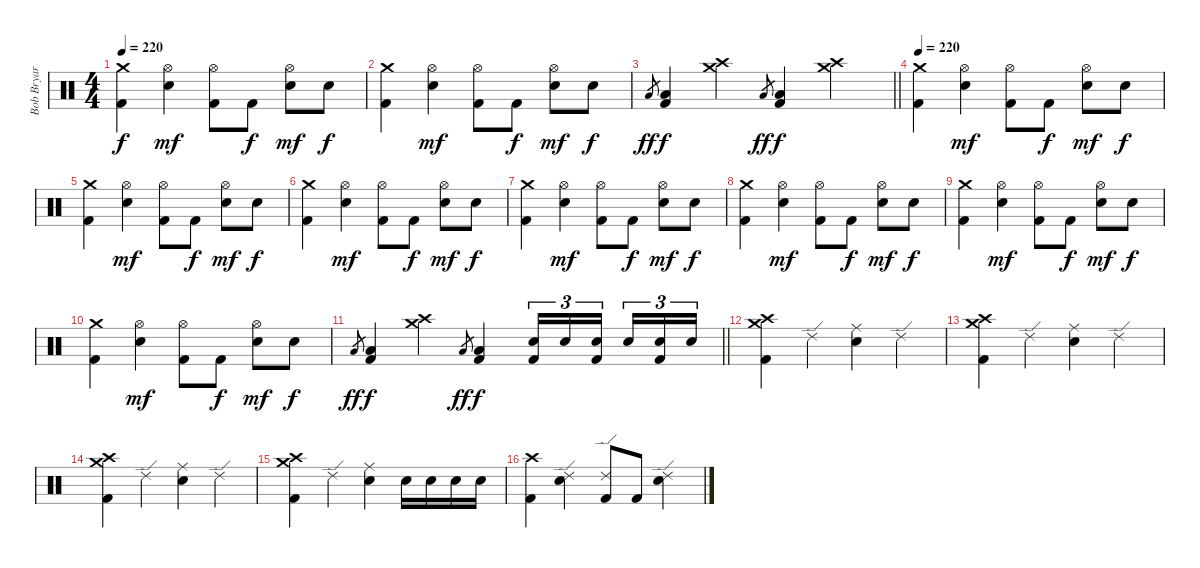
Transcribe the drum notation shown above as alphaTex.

\track ("Bob Bryar" "Bob Bryar") {instrument percussion}
\staff {score}
\articulation defaults
\ts (4 4)
\tempo 220
\clef neutral
\ks c
("Crash medium (hit)" "Kick (hit) 2").4{dy f} ("Hi-Hat (open)" "Electric Snare (hit)").4{dy mf} ("Hi-Hat (open)" "Kick (hit) 2").8 "Kick (hit) 2".8{dy f} ("Hi-Hat (open)" "Electric Snare (hit)").8{dy mf} "Electric Snare (hit)".8{dy f} |
("Crash medium (hit)" "Kick (hit) 2").4 ("Hi-Hat (open)" "Electric Snare (hit)").4{dy mf} ("Hi-Hat (open)" "Kick (hit) 2").8 "Kick (hit) 2".8{dy f} ("Hi-Hat (open)" "Electric Snare (hit)").8{dy mf} "Electric Snare (hit)".8{dy f} |
\barLineRight lightlight "Low Floor Tom (hit)".8{gr dy ff}
("Low Floor Tom (hit)" "Kick (hit) 2").4{dy f} ("Crash medium (hit)" "Crash high (hit)").4 "Low Floor Tom (hit)".8{gr dy ff} ("Low Floor Tom (hit)" "Kick (hit) 2").4{dy f} ("Crash medium (hit)" "Crash high (hit)").4 |
\tempo 220
("Crash medium (hit)" "Kick (hit) 2").4 ("Hi-Hat (open)" "Electric Snare (hit)").4{dy mf} ("Hi-Hat (open)" "Kick (hit) 2").8 "Kick (hit) 2".8{dy f} ("Hi-Hat (open)" "Electric Snare (hit)").8{dy mf} "Electric Snare (hit)".8{dy f} |
("Crash medium (hit)" "Kick (hit) 2").4 ("Hi-Hat (open)" "Electric Snare (hit)").4{dy mf} ("Hi-Hat (open)" "Kick (hit) 2").8 "Kick (hit) 2".8{dy f} ("Hi-Hat (open)" "Electric Snare (hit)").8{dy mf} "Electric Snare (hit)".8{dy f} |
("Crash medium (hit)" "Kick (hit) 2").4 ("Hi-Hat (open)" "Electric Snare (hit)").4{dy mf} ("Hi-Hat (open)" "Kick (hit) 2").8 "Kick (hit) 2".8{dy f} ("Hi-Hat (open)" "Electric Snare (hit)").8{dy mf} "Electric Snare (hit)".8{dy f} |
("Crash medium (hit)" "Kick (hit) 2").4 ("Hi-Hat (open)" "Electric Snare (hit)").4{dy mf} ("Hi-Hat (open)" "Kick (hit) 2").8 "Kick (hit) 2".8{dy f} ("Hi-Hat (open)" "Electric Snare (hit)").8{dy mf} "Electric Snare (hit)".8{dy f} |
("Crash medium (hit)" "Kick (hit) 2").4 ("Hi-Hat (open)" "Electric Snare (hit)").4{dy mf} ("Hi-Hat (open)" "Kick (hit) 2").8 "Kick (hit) 2".8{dy f} ("Hi-Hat (open)" "Electric Snare (hit)").8{dy mf} "Electric Snare (hit)".8{dy f} |
("Crash medium (hit)" "Kick (hit) 2").4 ("Hi-Hat (open)" "Electric Snare (hit)").4{dy mf} ("Hi-Hat (open)" "Kick (hit) 2").8 "Kick (hit) 2".8{dy f} ("Hi-Hat (open)" "Electric Snare (hit)").8{dy mf} "Electric Snare (hit)".8{dy f} |
("Crash medium (hit)" "Kick (hit) 2").4 ("Hi-Hat (open)" "Electric Snare (hit)").4{dy mf} ("Hi-Hat (open)" "Kick (hit) 2").8 "Kick (hit) 2".8{dy f} ("Hi-Hat (open)" "Electric Snare (hit)").8{dy mf} "Electric Snare (hit)".8{dy f} |
\barLineRight lightlight "Low Floor Tom (hit)".8{gr dy ff}
("Low Floor Tom (hit)" "Kick (hit) 2").4{dy f} ("Crash medium (hit)" "Crash high (hit)").4 "Low Floor Tom (hit)".8{gr dy ff} ("Low Floor Tom (hit)" "Kick (hit) 2").4{dy f} ("Snare (hit) 2" "Kick (hit) 2").16{tu (3 2)} "Snare (hit) 2".16{tu (3 2)} ("Snare (hit) 2" "Kick (hit) 2").16{tu (3 2) beam splitsecondary} "Snare (hit) 2".16{tu (3 2)} ("Snare (hit) 2" "Kick (hit) 2").16{tu (3 2)} "Snare (hit) 2".16{tu (3 2)} |
("Crash high (hit)" "Crash medium (hit)" "Kick (hit) 2").4 "Ride (edge) 2".4 ("Ride (middle)" "Electric Snare (hit)").4 "Ride (edge) 2".4 |
("Crash high (hit)" "Crash medium (hit)" "Kick (hit) 2").4 "Ride (edge) 2".4 ("Ride (middle)" "Electric Snare (hit)").4 "Ride (edge) 2".4 |
("Crash high (hit)" "Crash medium (hit)" "Kick (hit) 2").4 "Ride (edge) 2".4 ("Ride (middle)" "Electric Snare (hit)").4 "Ride (edge) 2".4 |
("Crash high (hit)" "Crash medium (hit)" "Kick (hit) 2").4 "Ride (edge) 2".4 ("Ride (middle)" "Electric Snare (hit)").4 "Electric Snare (hit)".16 "Electric Snare (hit)".16 "Electric Snare (hit)".16 "Electric Snare (hit)".16 |
("Crash high (hit)" "Kick (hit) 2").4 ("Ride (edge) 2" "Electric Snare (hit)").4 ("Ride (edge) 2" "Kick (hit) 2").8 "Kick (hit) 2".8 ("Ride (edge) 2" "Electric Snare (hit)").4
